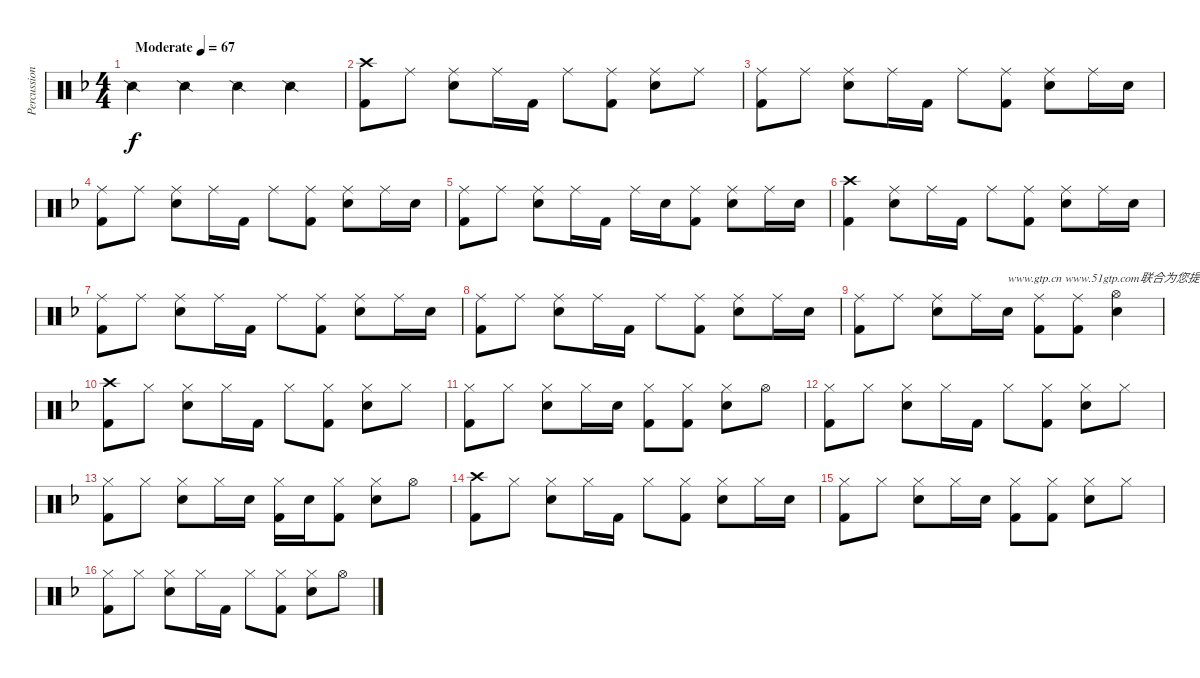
\track ("Percussion" "Percussion") {instrument percussion}
\staff {score}
\articulation defaults
\ts (4 4)
\tempo (67 "Moderate")
\clef neutral
\ks f "Snare (side stick) 2".4{dy f} "Snare (side stick) 2".4 "Snare (side stick) 2".4 "Snare (side stick) 2".4
|
("Crash high (hit)" "Kick (hit) 2").8 "Ride (middle)".8 ("Ride (middle)" "Snare (hit) 2").8 "Ride (middle)".16 "Kick (hit) 2".16 "Ride (middle)".8 ("Ride (middle)" "Kick (hit) 2").8 ("Ride (middle)" "Electric Snare (hit)").8 "Ride (middle)".8 |
("Ride (middle)" "Kick (hit) 2").8 "Ride (middle)".8 ("Ride (middle)" "Snare (hit) 2").8 "Ride (middle)".16 "Kick (hit) 2".16 "Ride (middle)".8 ("Ride (middle)" "Kick (hit) 2").8 ("Ride (middle)" "Electric Snare (hit)").8 "Ride (middle)".16 "Electric Snare (hit)".16 |
("Ride (middle)" "Kick (hit) 2").8 "Ride (middle)".8 ("Ride (middle)" "Snare (hit) 2").8 "Ride (middle)".16 "Kick (hit) 2".16 "Ride (middle)".8 ("Ride (middle)" "Kick (hit) 2").8 ("Ride (middle)" "Electric Snare (hit)").8 "Ride (middle)".16 "Electric Snare (hit)".16 |
("Ride (middle)" "Kick (hit) 2").8 "Ride (middle)".8 ("Ride (middle)" "Snare (hit) 2").8 "Ride (middle)".16 "Kick (hit) 2".16 "Ride (middle)".16 "Electric Snare (hit)".16 ("Ride (middle)" "Kick (hit) 2").8 ("Ride (middle)" "Electric Snare (hit)").8 "Ride (middle)".16 "Electric Snare (hit)".16 |
("Crash high (hit)" "Kick (hit) 2").4 ("Ride (middle)" "Snare (hit) 2").8 "Ride (middle)".16 "Kick (hit) 2".16 "Ride (middle)".8 ("Ride (middle)" "Kick (hit) 2").8 ("Ride (middle)" "Electric Snare (hit)").8 "Ride (middle)".16 "Electric Snare (hit)".16 |
("Ride (middle)" "Kick (hit) 2").8 "Ride (middle)".8 ("Ride (middle)" "Snare (hit) 2").8 "Ride (middle)".16 "Kick (hit) 2".16 "Ride (middle)".8 ("Ride (middle)" "Kick (hit) 2").8 ("Ride (middle)" "Electric Snare (hit)").8 "Ride (middle)".16 "Electric Snare (hit)".16 |
("Ride (middle)" "Kick (hit) 2").8 "Ride (middle)".8 ("Ride (middle)" "Snare (hit) 2").8 "Ride (middle)".16 "Kick (hit) 2".16 "Ride (middle)".8 ("Ride (middle)" "Kick (hit) 2").8 ("Ride (middle)" "Electric Snare (hit)").8 "Ride (middle)".16 "Electric Snare (hit)".16 |
("Ride (middle)" "Kick (hit) 2").8 "Ride (middle)".8 ("Ride (middle)" "Electric Snare (hit)").8 "Ride (middle)".16 "Electric Snare (hit)".16{txt "www.gtp.cn www.51gtp.com联合为您提供优秀的GTP!"} ("Ride (middle)" "Kick (hit) 2").8 ("Ride (middle)" "Kick (hit) 2").8 ("Hi-Hat (open)" "Electric Snare (hit)").4 |
("Crash high (hit)" "Kick (hit) 2").8 "Hi-Hat (closed)".8 ("Hi-Hat (closed)" "Electric Snare (hit)").8 "Hi-Hat (closed)".16 "Kick (hit) 2".16 "Hi-Hat (closed)".8 ("Hi-Hat (closed)" "Kick (hit) 2").8 ("Hi-Hat (closed)" "Electric Snare (hit)").8 "Hi-Hat (closed)".8 |
("Hi-Hat (closed)" "Kick (hit) 2").8 "Hi-Hat (closed)".8 ("Hi-Hat (closed)" "Electric Snare (hit)").8 "Hi-Hat (closed)".16 "Electric Snare (hit)".16 ("Hi-Hat (closed)" "Kick (hit) 2").8 ("Hi-Hat (closed)" "Kick (hit) 2").8 ("Hi-Hat (closed)" "Electric Snare (hit)").8 "Hi-Hat (open)".8 |
("Hi-Hat (closed)" "Kick (hit) 2").8 "Hi-Hat (closed)".8 ("Hi-Hat (closed)" "Electric Snare (hit)").8 "Hi-Hat (closed)".16 "Kick (hit) 2".16 "Hi-Hat (closed)".8 ("Hi-Hat (closed)" "Kick (hit) 2").8 ("Hi-Hat (closed)" "Electric Snare (hit)").8 "Hi-Hat (closed)".8 |
("Hi-Hat (closed)" "Kick (hit) 2").8 "Hi-Hat (closed)".8 ("Hi-Hat (closed)" "Electric Snare (hit)").8 "Hi-Hat (closed)".16 "Electric Snare (hit)".16 ("Hi-Hat (closed)" "Kick (hit) 2").16 "Electric Snare (hit)".16 ("Hi-Hat (closed)" "Kick (hit) 2").8 ("Hi-Hat (closed)" "Electric Snare (hit)").8 "Hi-Hat (open)".8 |
("Crash high (hit)" "Kick (hit) 2").8 "Hi-Hat (closed)".8 ("Hi-Hat (closed)" "Electric Snare (hit)").8 "Hi-Hat (closed)".16 "Kick (hit) 2".16 "Hi-Hat (closed)".8 ("Hi-Hat (closed)" "Kick (hit) 2").8 ("Hi-Hat (closed)" "Electric Snare (hit)").8 "Hi-Hat (closed)".16 "Electric Snare (hit)".16 |
("Hi-Hat (closed)" "Kick (hit) 2").8 "Hi-Hat (closed)".8 ("Hi-Hat (closed)" "Electric Snare (hit)").8 "Hi-Hat (closed)".16 "Electric Snare (hit)".16 ("Hi-Hat (closed)" "Kick (hit) 2").8 ("Hi-Hat (closed)" "Kick (hit) 2").8 ("Hi-Hat (closed)" "Electric Snare (hit)").8 "Hi-Hat (closed)".8 |
("Hi-Hat (closed)" "Kick (hit) 2").8 "Hi-Hat (closed)".8 ("Hi-Hat (closed)" "Electric Snare (hit)").8 "Hi-Hat (closed)".16 "Kick (hit) 2".16 "Hi-Hat (closed)".8 ("Hi-Hat (closed)" "Kick (hit) 2").8 ("Hi-Hat (closed)" "Electric Snare (hit)").8 "Hi-Hat (open)".8
